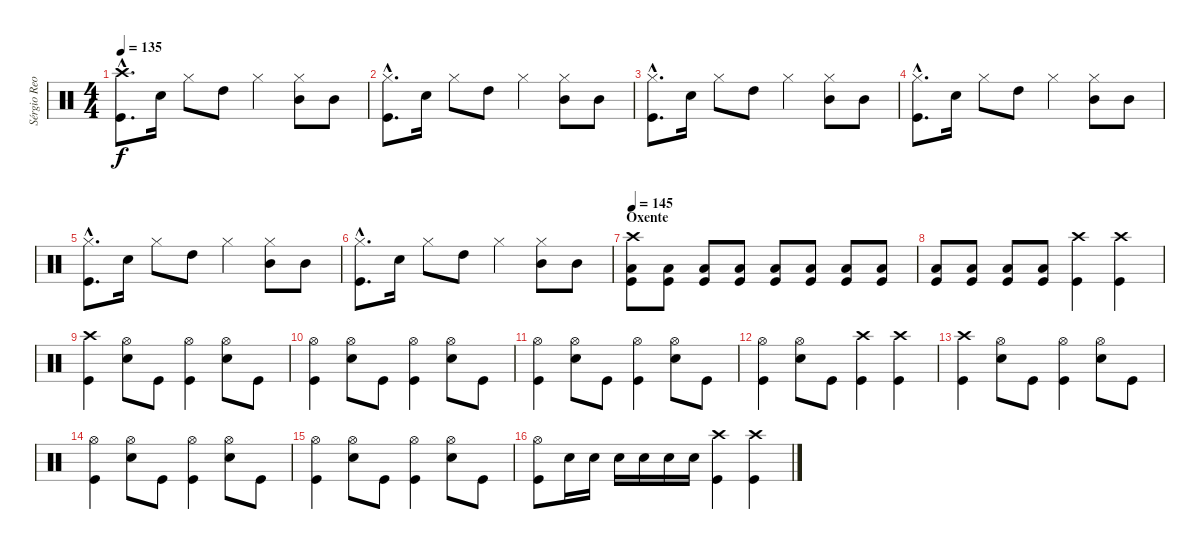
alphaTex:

\track ("Sérgio Reoli" "Sérgio Reo") {instrument percussion}
\staff {score}
\articulation defaults
\ts (4 4)
\tempo 135
\clef neutral
\ks c
("Crash high (hit)"{hac} "Kick (hit)"{hac}).8{d dy f} "Electric Snare (hit)".16 "Hi-Hat (closed)".8 "High Tom (hit)".8 "Hi-Hat (closed)".4 ("Hi-Hat (closed)" "Mid Tom (hit)").8 "Mid Tom (hit)".8 |
("Hi-Hat (closed)"{hac} "Kick (hit)"{hac}).8{d} "Electric Snare (hit)".16 "Hi-Hat (closed)".8 "High Tom (hit)".8 "Hi-Hat (closed)".4 ("Hi-Hat (closed)" "Mid Tom (hit)").8 "Mid Tom (hit)".8 |
("Hi-Hat (closed)"{hac} "Kick (hit)"{hac}).8{d} "Electric Snare (hit)".16 "Hi-Hat (closed)".8 "High Tom (hit)".8 "Hi-Hat (closed)".4 ("Hi-Hat (closed)" "Mid Tom (hit)").8 "Mid Tom (hit)".8 |
("Hi-Hat (closed)"{hac} "Kick (hit)"{hac}).8{d} "Electric Snare (hit)".16 "Hi-Hat (closed)".8 "High Tom (hit)".8 "Hi-Hat (closed)".4 ("Hi-Hat (closed)" "Mid Tom (hit)").8 "Mid Tom (hit)".8 |
("Hi-Hat (closed)"{hac} "Kick (hit)"{hac}).8{d} "Electric Snare (hit)".16 "Hi-Hat (closed)".8 "High Tom (hit)".8 "Hi-Hat (closed)".4 ("Hi-Hat (closed)" "Mid Tom (hit)").8 "Mid Tom (hit)".8 |
("Hi-Hat (closed)"{hac} "Kick (hit)"{hac}).8{d} "Electric Snare (hit)".16 "Hi-Hat (closed)".8 "High Tom (hit)".8 "Hi-Hat (closed)".4 ("Hi-Hat (closed)" "Mid Tom (hit)").8 "Mid Tom (hit)".8 |
\section ("" "Oxente")
\tempo 145
("Crash high (hit)" "Low Tom (hit)" "Kick (hit)").8 ("Low Tom (hit)" "Kick (hit)").8 ("Low Tom (hit)" "Kick (hit)").8 ("Low Tom (hit)" "Kick (hit)").8 ("Low Tom (hit)" "Kick (hit)").8 ("Low Tom (hit)" "Kick (hit)").8 ("Low Tom (hit)" "Kick (hit)").8 ("Low Tom (hit)" "Kick (hit)").8 |
("Low Tom (hit)" "Kick (hit)").8 ("Low Tom (hit)" "Kick (hit)").8 ("Low Tom (hit)" "Kick (hit)").8 ("Low Tom (hit)" "Kick (hit)").8 ("Crash high (hit)" "Kick (hit)").4 ("Crash high (hit)" "Kick (hit)").4 |
("Crash high (hit)" "Kick (hit)").4 ("Hi-Hat (open)" "Electric Snare (hit)").8 "Kick (hit)".8 ("Hi-Hat (open)" "Kick (hit)").4 ("Hi-Hat (open)" "Electric Snare (hit)").8 "Kick (hit)".8 |
("Hi-Hat (open)" "Kick (hit)").4 ("Hi-Hat (open)" "Electric Snare (hit)").8 "Kick (hit)".8 ("Hi-Hat (open)" "Kick (hit)").4 ("Hi-Hat (open)" "Electric Snare (hit)").8 "Kick (hit)".8 |
("Hi-Hat (open)" "Kick (hit)").4 ("Hi-Hat (open)" "Electric Snare (hit)").8 "Kick (hit)".8 ("Hi-Hat (open)" "Kick (hit)").4 ("Hi-Hat (open)" "Electric Snare (hit)").8 "Kick (hit)".8 |
("Hi-Hat (open)" "Kick (hit)").4 ("Hi-Hat (open)" "Electric Snare (hit)").8 "Kick (hit)".8 ("Crash high (hit)" "Kick (hit)").4 ("Crash high (hit)" "Kick (hit)").4 |
("Crash high (hit)" "Kick (hit)").4 ("Hi-Hat (open)" "Electric Snare (hit)").8 "Kick (hit)".8 ("Hi-Hat (open)" "Kick (hit)").4 ("Hi-Hat (open)" "Electric Snare (hit)").8 "Kick (hit)".8 |
("Hi-Hat (open)" "Kick (hit)").4 ("Hi-Hat (open)" "Electric Snare (hit)").8 "Kick (hit)".8 ("Hi-Hat (open)" "Kick (hit)").4 ("Hi-Hat (open)" "Electric Snare (hit)").8 "Kick (hit)".8 |
("Hi-Hat (open)" "Kick (hit)").4 ("Hi-Hat (open)" "Electric Snare (hit)").8 "Kick (hit)".8 ("Hi-Hat (open)" "Kick (hit)").4 ("Hi-Hat (open)" "Electric Snare (hit)").8 "Kick (hit)".8 |
("Hi-Hat (open)" "Kick (hit)").8 "Electric Snare (hit)".16 "Electric Snare (hit)".16 "Electric Snare (hit)".16 "Electric Snare (hit)".16 "Electric Snare (hit)".16 "Electric Snare (hit)".16 ("Crash high (hit)" "Kick (hit)").4 ("Crash high (hit)" "Kick (hit)").4
